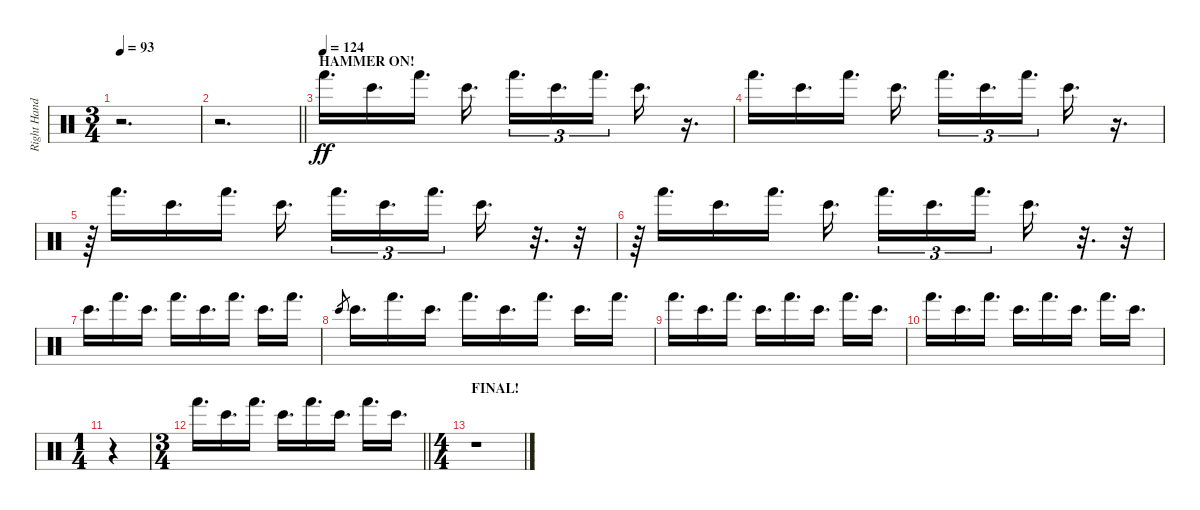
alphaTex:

\track ("Right Hand Rythm" "Right Hand") {instrument percussion}
\staff {score}
\articulation defaults
\ts (3 4)
\tempo 93
\clef neutral
\ks c
r.2{d dy f} |
\barLineRight lightlight
r.2{d} |
\section ("" "HAMMER ON!")
\tempo (124)
"Hand (hit)".16{d dy ff} "Bongo High (hit)".16{d} "Hand (hit)".16{d} "Bongo High (hit)".16{d beam splitsecondary} "Hand (hit)".16{d tu (3 2)} "Bongo High (hit)".16{d tu (3 2)} "Hand (hit)".16{d tu (3 2)} "Bongo High (hit)".16{d} r.16{d} |
"Hand (hit)".16{d} "Bongo High (hit)".16{d} "Hand (hit)".16{d} "Bongo High (hit)".16{d beam splitsecondary} "Hand (hit)".16{d tu (3 2)} "Bongo High (hit)".16{d tu (3 2)} "Hand (hit)".16{d tu (3 2)} "Bongo High (hit)".16{d} r.16{d} |
r.64 "Hand (hit)".16{d} "Bongo High (hit)".16{d} "Hand (hit)".16{d} "Bongo High (hit)".16{d beam splitsecondary} "Hand (hit)".16{d tu (3 2)} "Bongo High (hit)".16{d tu (3 2)} "Hand (hit)".16{d tu (3 2)} "Bongo High (hit)".16{d} r.32{d} r.32 |
r.64 "Hand (hit)".16{d} "Bongo High (hit)".16{d} "Hand (hit)".16{d} "Bongo High (hit)".16{d beam splitsecondary} "Hand (hit)".16{d tu (3 2)} "Bongo High (hit)".16{d tu (3 2)} "Hand (hit)".16{d tu (3 2)} "Bongo High (hit)".16{d} r.32{d} r.32 |
"Bongo High (hit)".16{d} "Hand (hit)".16{d} "Bongo High (hit)".16{d} "Hand (hit)".16{d} "Bongo High (hit)".16{d} "Hand (hit)".16{d} "Bongo High (hit)".16{d} "Hand (hit)".16{d} |
"Bongo High (hit)".8{gr} "Bongo High (hit)".16{d} "Hand (hit)".16{d} "Bongo High (hit)".16{d} "Hand (hit)".16{d} "Bongo High (hit)".16{d} "Hand (hit)".16{d} "Bongo High (hit)".16{d} "Hand (hit)".16{d} |
"Hand (hit)".16{d} "Bongo High (hit)".16{d} "Hand (hit)".16{d} "Bongo High (hit)".16{d} "Hand (hit)".16{d} "Bongo High (hit)".16{d} "Hand (hit)".16{d} "Bongo High (hit)".16{d} |
"Hand (hit)".16{d} "Bongo High (hit)".16{d} "Hand (hit)".16{d} "Bongo High (hit)".16{d} "Hand (hit)".16{d} "Bongo High (hit)".16{d} "Hand (hit)".16{d} "Bongo High (hit)".16{d} |
\ts (1 4)
r.4 |
\ts (3 4)
\barLineRight lightlight "Hand (hit)".16{d} "Bongo High (hit)".16{d} "Hand (hit)".16{d} "Bongo High (hit)".16{d} "Hand (hit)".16{d} "Bongo High (hit)".16{d} "Hand (hit)".16{d} "Bongo High (hit)".16{d}
|
\ts (4 4)
\section ("" "FINAL!")
r.1
